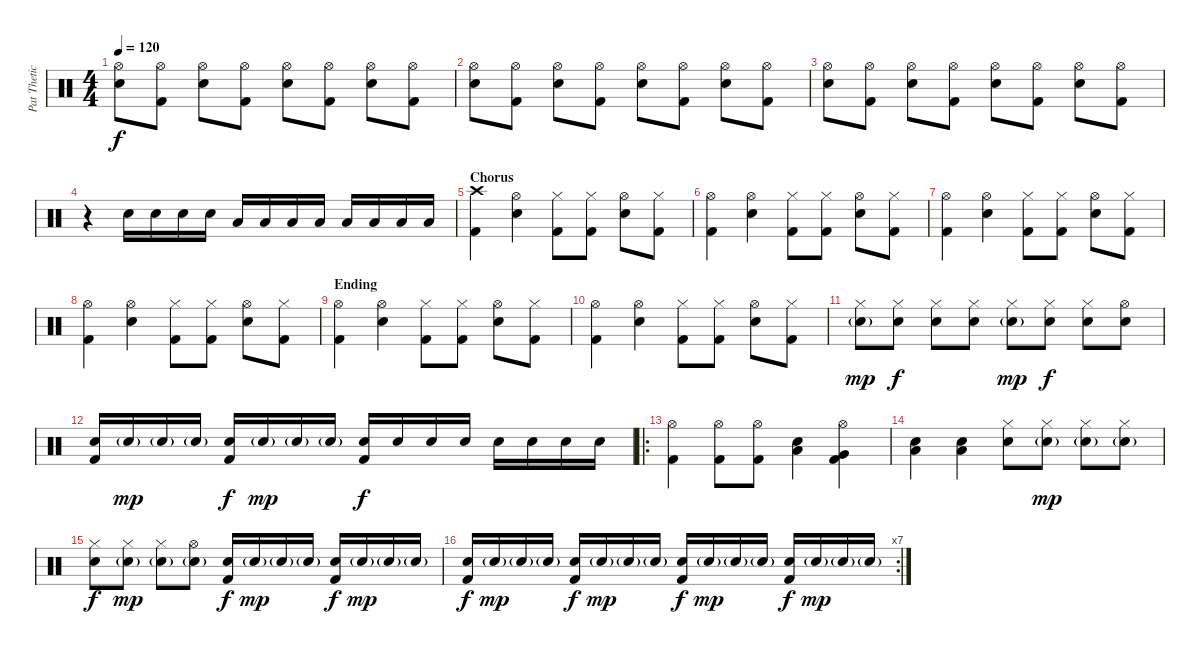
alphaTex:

\track ("Pat Thetic (Drums)" "Pat Thetic") {instrument percussion}
\staff {score}
\articulation defaults
\ts (4 4)
\tempo 120
\clef neutral
\ks c
("Hi-Hat (open)" "Electric Snare (hit)").8{dy f} ("Hi-Hat (open)" "Kick (hit) 2").8 ("Hi-Hat (open)" "Electric Snare (hit)").8 ("Hi-Hat (open)" "Kick (hit) 2").8 ("Hi-Hat (open)" "Electric Snare (hit)").8 ("Hi-Hat (open)" "Kick (hit) 2").8 ("Hi-Hat (open)" "Electric Snare (hit)").8 ("Hi-Hat (open)" "Kick (hit) 2").8 |
("Hi-Hat (open)" "Electric Snare (hit)").8 ("Hi-Hat (open)" "Kick (hit) 2").8 ("Hi-Hat (open)" "Electric Snare (hit)").8 ("Hi-Hat (open)" "Kick (hit) 2").8 ("Hi-Hat (open)" "Electric Snare (hit)").8 ("Hi-Hat (open)" "Kick (hit) 2").8 ("Hi-Hat (open)" "Electric Snare (hit)").8 ("Hi-Hat (open)" "Kick (hit) 2").8 |
("Hi-Hat (open)" "Electric Snare (hit)").8 ("Hi-Hat (open)" "Kick (hit) 2").8 ("Hi-Hat (open)" "Electric Snare (hit)").8 ("Hi-Hat (open)" "Kick (hit) 2").8 ("Hi-Hat (open)" "Electric Snare (hit)").8 ("Hi-Hat (open)" "Kick (hit) 2").8 ("Hi-Hat (open)" "Electric Snare (hit)").8 ("Hi-Hat (open)" "Kick (hit) 2").8 |
r.4 "Electric Snare (hit)".16 "Electric Snare (hit)".16 "Electric Snare (hit)".16 "Electric Snare (hit)".16 "Low Tom (hit)".16 "Low Tom (hit)".16 "Low Tom (hit)".16 "Low Tom (hit)".16 "Low Floor Tom (hit)".16 "Low Floor Tom (hit)".16 "Low Floor Tom (hit)".16 "Low Floor Tom (hit)".16 |
\section ("" "Chorus")
("Crash high (hit)" "Kick (hit) 2").4 ("Hi-Hat (open)" "Electric Snare (hit)").4 ("Hi-Hat (closed)" "Kick (hit) 2").8 ("Hi-Hat (closed)" "Kick (hit) 2").8 ("Hi-Hat (open)" "Electric Snare (hit)").8 ("Hi-Hat (closed)" "Kick (hit) 2").8 |
("Hi-Hat (open)" "Kick (hit) 2").4 ("Hi-Hat (open)" "Electric Snare (hit)").4 ("Hi-Hat (closed)" "Kick (hit) 2").8 ("Hi-Hat (closed)" "Kick (hit) 2").8 ("Hi-Hat (open)" "Electric Snare (hit)").8 ("Hi-Hat (closed)" "Kick (hit) 2").8 |
("Hi-Hat (open)" "Kick (hit) 2").4 ("Hi-Hat (open)" "Electric Snare (hit)").4 ("Hi-Hat (closed)" "Kick (hit) 2").8 ("Hi-Hat (closed)" "Kick (hit) 2").8 ("Hi-Hat (open)" "Electric Snare (hit)").8 ("Hi-Hat (closed)" "Kick (hit) 2").8 |
("Hi-Hat (open)" "Kick (hit) 2").4 ("Hi-Hat (open)" "Electric Snare (hit)").4 ("Hi-Hat (closed)" "Kick (hit) 2").8 ("Hi-Hat (closed)" "Kick (hit) 2").8 ("Hi-Hat (open)" "Electric Snare (hit)").8 ("Hi-Hat (closed)" "Kick (hit) 2").8 |
\section ("" "Ending")
("Hi-Hat (open)" "Kick (hit) 2").4 ("Hi-Hat (open)" "Electric Snare (hit)").4 ("Hi-Hat (closed)" "Kick (hit) 2").8 ("Hi-Hat (closed)" "Kick (hit) 2").8 ("Hi-Hat (open)" "Electric Snare (hit)").8 ("Hi-Hat (closed)" "Kick (hit) 2").8 |
("Hi-Hat (open)" "Kick (hit) 2").4 ("Hi-Hat (open)" "Electric Snare (hit)").4 ("Hi-Hat (closed)" "Kick (hit) 2").8 ("Hi-Hat (closed)" "Kick (hit) 2").8 ("Hi-Hat (open)" "Electric Snare (hit)").8 ("Hi-Hat (closed)" "Kick (hit) 2").8 |
("Hi-Hat (closed)" "Electric Snare (hit)"{g}).8{dy mp} ("Hi-Hat (closed)" "Electric Snare (hit)").8{dy f} ("Hi-Hat (closed)" "Electric Snare (hit)").8 ("Hi-Hat (closed)" "Electric Snare (hit)").8 ("Hi-Hat (closed)" "Electric Snare (hit)"{g}).8{dy mp} ("Hi-Hat (closed)" "Electric Snare (hit)").8{dy f} ("Hi-Hat (closed)" "Electric Snare (hit)").8 ("Hi-Hat (open)" "Electric Snare (hit)").8 |
("Electric Snare (hit)" "Kick (hit) 2").16 "Electric Snare (hit)"{g}.16{dy mp} "Electric Snare (hit)"{g}.16 "Electric Snare (hit)"{g}.16 ("Electric Snare (hit)" "Kick (hit) 2").16{dy f} "Electric Snare (hit)"{g}.16{dy mp} "Electric Snare (hit)"{g}.16 "Electric Snare (hit)"{g}.16 ("Electric Snare (hit)" "Kick (hit) 2").16{dy f} "Electric Snare (hit)".16 "Electric Snare (hit)".16 "Electric Snare (hit)".16 "Electric Snare (hit)".16 "Electric Snare (hit)".16 "Electric Snare (hit)".16 "Electric Snare (hit)".16 |
\ro
("Hi-Hat (open)" "Kick (hit) 2").4 ("Hi-Hat (open)" "Kick (hit) 2").8 ("Hi-Hat (open)" "Kick (hit) 2").8 ("Electric Snare (hit)" "Low Floor Tom (hit)").4 ("Hi-Hat (open)" "Very Low Tom (hit)" "Kick (hit) 2").4 |
("Electric Snare (hit)" "Low Floor Tom (hit)").4 ("Electric Snare (hit)" "Low Floor Tom (hit)").4 ("Hi-Hat (closed)" "Electric Snare (hit)").8 ("Hi-Hat (closed)" "Electric Snare (hit)"{g}).8{dy mp} ("Hi-Hat (closed)" "Electric Snare (hit)"{g}).8 ("Hi-Hat (closed)" "Electric Snare (hit)"{g}).8 |
("Hi-Hat (closed)" "Electric Snare (hit)").8{dy f} ("Hi-Hat (closed)" "Electric Snare (hit)"{g}).8{dy mp} ("Hi-Hat (closed)" "Electric Snare (hit)"{g}).8 ("Hi-Hat (open)" "Electric Snare (hit)"{g}).8 ("Electric Snare (hit)" "Kick (hit) 2").16{dy f} "Electric Snare (hit)"{g}.16{dy mp} "Electric Snare (hit)"{g}.16 "Electric Snare (hit)"{g}.16 ("Electric Snare (hit)" "Kick (hit) 2").16{dy f} "Electric Snare (hit)"{g}.16{dy mp} "Electric Snare (hit)"{g}.16 "Electric Snare (hit)"{g}.16 |
\rc 7
("Electric Snare (hit)" "Kick (hit) 2").16{dy f} "Electric Snare (hit)"{g}.16{dy mp} "Electric Snare (hit)"{g}.16 "Electric Snare (hit)"{g}.16 ("Electric Snare (hit)" "Kick (hit) 2").16{dy f} "Electric Snare (hit)"{g}.16{dy mp} "Electric Snare (hit)"{g}.16 "Electric Snare (hit)"{g}.16 ("Electric Snare (hit)" "Kick (hit) 2").16{dy f} "Electric Snare (hit)"{g}.16{dy mp} "Electric Snare (hit)"{g}.16 "Electric Snare (hit)"{g}.16 ("Electric Snare (hit)" "Kick (hit) 2").16{dy f} "Electric Snare (hit)"{g}.16{dy mp} "Electric Snare (hit)"{g}.16 "Electric Snare (hit)"{g}.16
